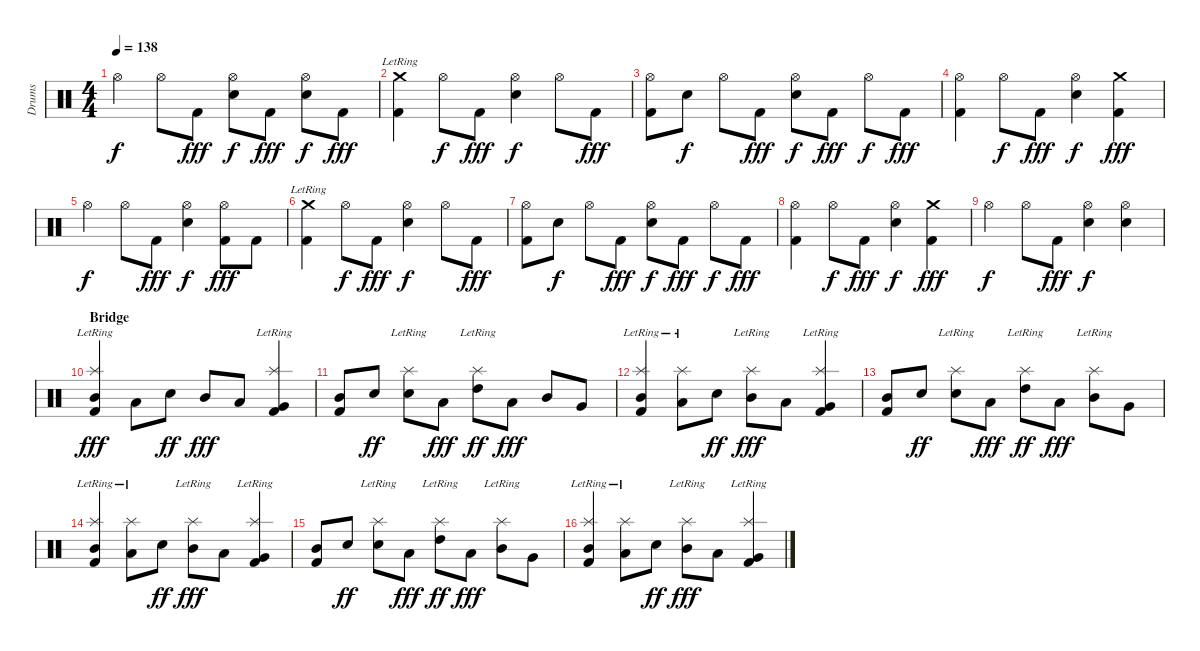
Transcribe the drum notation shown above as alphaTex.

\track ("Drums" "Drums") {instrument percussion}
\staff {score}
\articulation defaults
\ts (4 4)
\tempo 138
\clef neutral
\ks c "Hi-Hat (open)".4{dy f} "Hi-Hat (open)".8 "Kick (hit) 2".8{dy fff}
("Hi-Hat (open)" "Snare (hit) 2").8{dy f} "Kick (hit) 2".8{dy fff} ("Hi-Hat (open)" "Snare (hit) 2").8{dy f} "Kick (hit) 2".8{dy fff} |
("Crash medium (hit)"{lr} "Kick (hit) 2").4 "Hi-Hat (open)".8{dy f} "Kick (hit) 2".8{dy fff} ("Hi-Hat (open)" "Snare (hit) 2").4{dy f} "Hi-Hat (open)".8 "Kick (hit) 2".8{dy fff} |
("Hi-Hat (open)" "Kick (hit) 2").8 "Snare (hit) 2".8{dy f} "Hi-Hat (open)".8 "Kick (hit) 2".8{dy fff} ("Hi-Hat (open)" "Snare (hit) 2").8{dy f} "Kick (hit) 2".8{dy fff} "Hi-Hat (open)".8{dy f} "Kick (hit) 2".8{dy fff} |
("Hi-Hat (open)" "Kick (hit) 2").4 "Hi-Hat (open)".8{dy f} "Kick (hit) 2".8{dy fff} ("Hi-Hat (open)" "Snare (hit) 2").4{dy f} ("Crash medium (hit)" "Kick (hit) 2").4{dy fff} |
"Hi-Hat (open)".4{dy f} "Hi-Hat (open)".8 "Kick (hit) 2".8{dy fff} ("Hi-Hat (open)" "Snare (hit) 2").4{dy f} ("Hi-Hat (open)" "Kick (hit) 2").8{dy fff} "Kick (hit) 2".8 |
("Crash medium (hit)"{lr} "Kick (hit) 2").4 "Hi-Hat (open)".8{dy f} "Kick (hit) 2".8{dy fff} ("Hi-Hat (open)" "Snare (hit) 2").4{dy f} "Hi-Hat (open)".8 "Kick (hit) 2".8{dy fff} |
("Hi-Hat (open)" "Kick (hit) 2").8 "Snare (hit) 2".8{dy f} "Hi-Hat (open)".8 "Kick (hit) 2".8{dy fff} ("Hi-Hat (open)" "Snare (hit) 2").8{dy f} "Kick (hit) 2".8{dy fff} "Hi-Hat (open)".8{dy f} "Kick (hit) 2".8{dy fff} |
("Hi-Hat (open)" "Kick (hit) 2").4 "Hi-Hat (open)".8{dy f} "Kick (hit) 2".8{dy fff} ("Hi-Hat (open)" "Snare (hit) 2").4{dy f} ("Crash medium (hit)" "Kick (hit) 2").4{dy fff} |
"Hi-Hat (open)".4{dy f} "Hi-Hat (open)".8 "Kick (hit) 2".8{dy fff} ("Hi-Hat (open)" "Snare (hit) 2").4{dy f} ("Hi-Hat (open)" "Snare (hit) 2").4 |
\section ("" "Bridge")
("Splash (hit)"{lr} "Mid Tom (hit)" "Kick (hit) 2").4{dy fff} "Low Tom (hit)".8 "Snare (hit) 2".8{dy ff} "Mid Tom (hit)".8{dy fff} "Low Tom (hit)".8 ("Splash (hit)"{lr} "Very Low Tom (hit)" "Kick (hit) 2").4 |
("Mid Tom (hit)" "Kick (hit) 2").8 "Snare (hit) 2".8{dy ff} ("Splash (hit)"{lr} "Snare (hit) 2").8 "Low Tom (hit)".8{dy fff} ("Splash (hit)"{lr} "High Tom (hit)").8{dy ff} "Low Tom (hit)".8{dy fff} "Mid Tom (hit)".8 "Very Low Tom (hit)".8 |
("Splash (hit)"{lr} "Mid Tom (hit)" "Kick (hit) 2").4 ("Splash (hit)"{lr} "Low Tom (hit)").8 "Snare (hit) 2".8{dy ff} ("Splash (hit)"{lr} "Mid Tom (hit)").8{dy fff} "Low Tom (hit)".8 ("Splash (hit)"{lr} "Very Low Tom (hit)" "Kick (hit) 2").4 |
("Mid Tom (hit)" "Kick (hit) 2").8 "Snare (hit) 2".8{dy ff} ("Splash (hit)"{lr} "Snare (hit) 2").8 "Low Tom (hit)".8{dy fff} ("Splash (hit)"{lr} "High Tom (hit)").8{dy ff} "Low Tom (hit)".8{dy fff} ("Splash (hit)"{lr} "Mid Tom (hit)").8 "Very Low Tom (hit)".8 |
("Splash (hit)"{lr} "Mid Tom (hit)" "Kick (hit) 2").4 ("Splash (hit)"{lr} "Low Tom (hit)").8 "Snare (hit) 2".8{dy ff} ("Splash (hit)"{lr} "Mid Tom (hit)").8{dy fff} "Low Tom (hit)".8 ("Splash (hit)"{lr} "Very Low Tom (hit)" "Kick (hit) 2").4 |
("Mid Tom (hit)" "Kick (hit) 2").8 "Snare (hit) 2".8{dy ff} ("Splash (hit)"{lr} "Snare (hit) 2").8 "Low Tom (hit)".8{dy fff} ("Splash (hit)"{lr} "High Tom (hit)").8{dy ff} "Low Tom (hit)".8{dy fff} ("Splash (hit)"{lr} "Mid Tom (hit)").8 "Very Low Tom (hit)".8 |
("Splash (hit)"{lr} "Mid Tom (hit)" "Kick (hit) 2").4 ("Splash (hit)"{lr} "Low Tom (hit)").8 "Snare (hit) 2".8{dy ff} ("Splash (hit)"{lr} "Mid Tom (hit)").8{dy fff} "Low Tom (hit)".8 ("Splash (hit)"{lr} "Very Low Tom (hit)" "Kick (hit) 2").4
